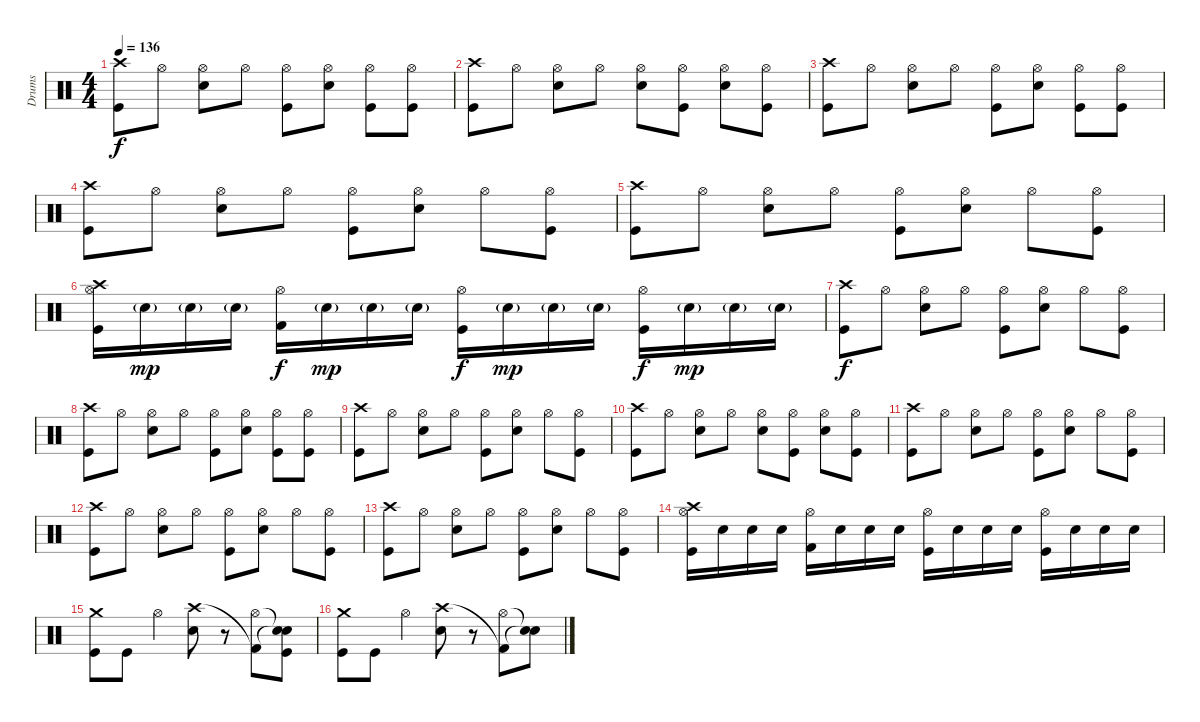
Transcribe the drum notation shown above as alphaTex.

\track ("Drums" "Drums") {instrument percussion}
\staff {score}
\articulation defaults
\ts (4 4)
\tempo 136
\clef neutral
\ks c
("Crash high (hit)" "Kick (hit)").8{dy f} "Hi-Hat (open)".8 ("Hi-Hat (open)" "Electric Snare (hit)").8 "Hi-Hat (open)".8 ("Hi-Hat (open)" "Kick (hit)").8 ("Hi-Hat (open)" "Electric Snare (hit)").8 ("Hi-Hat (open)" "Kick (hit)").8 ("Hi-Hat (open)" "Kick (hit)").8 |
("Crash high (hit)" "Kick (hit)").8 "Hi-Hat (open)".8 ("Hi-Hat (open)" "Electric Snare (hit)").8 "Hi-Hat (open)".8 ("Hi-Hat (open)" "Electric Snare (hit)").8 ("Hi-Hat (open)" "Kick (hit)").8 ("Hi-Hat (open)" "Electric Snare (hit)").8 ("Hi-Hat (open)" "Kick (hit)").8 |
("Crash high (hit)" "Kick (hit)").8 "Hi-Hat (open)".8 ("Hi-Hat (open)" "Electric Snare (hit)").8 "Hi-Hat (open)".8 ("Hi-Hat (open)" "Kick (hit)").8 ("Hi-Hat (open)" "Electric Snare (hit)").8 ("Hi-Hat (open)" "Kick (hit)").8 ("Hi-Hat (open)" "Kick (hit)").8 |
("Crash high (hit)" "Kick (hit)").8 "Hi-Hat (open)".8 ("Hi-Hat (open)" "Electric Snare (hit)").8 "Hi-Hat (open)".8 ("Hi-Hat (open)" "Kick (hit)").8 ("Hi-Hat (open)" "Electric Snare (hit)").8 "Hi-Hat (open)".8 ("Hi-Hat (open)" "Kick (hit)").8 |
("Crash high (hit)" "Kick (hit)").8 "Hi-Hat (open)".8 ("Hi-Hat (open)" "Electric Snare (hit)").8 "Hi-Hat (open)".8 ("Hi-Hat (open)" "Kick (hit)").8 ("Hi-Hat (open)" "Electric Snare (hit)").8 "Hi-Hat (open)".8 ("Hi-Hat (open)" "Kick (hit)").8 |
("Hi-Hat (open)" "Crash high (hit)" "Kick (hit)").16 "Electric Snare (hit)"{g}.16{dy mp} "Electric Snare (hit)"{g}.16 "Electric Snare (hit)"{g}.16 ("Hi-Hat (open)" "Kick (hit) 2").16{dy f} "Electric Snare (hit)"{g}.16{dy mp} "Electric Snare (hit)"{g}.16 "Electric Snare (hit)"{g}.16 ("Hi-Hat (open)" "Kick (hit)").16{dy f} "Electric Snare (hit)"{g}.16{dy mp} "Electric Snare (hit)"{g}.16 "Electric Snare (hit)"{g}.16 ("Hi-Hat (open)" "Kick (hit)").16{dy f} "Electric Snare (hit)"{g}.16{dy mp} "Electric Snare (hit)"{g}.16 "Electric Snare (hit)"{g}.16 |
("Crash high (hit)" "Kick (hit)").8{dy f} "Hi-Hat (open)".8 ("Hi-Hat (open)" "Electric Snare (hit)").8 "Hi-Hat (open)".8 ("Hi-Hat (open)" "Kick (hit)").8 ("Hi-Hat (open)" "Electric Snare (hit)").8 "Hi-Hat (open)".8 ("Hi-Hat (open)" "Kick (hit)").8 |
("Crash high (hit)" "Kick (hit)").8 "Hi-Hat (open)".8 ("Hi-Hat (open)" "Electric Snare (hit)").8 "Hi-Hat (open)".8 ("Hi-Hat (open)" "Kick (hit)").8 ("Hi-Hat (open)" "Electric Snare (hit)").8 ("Hi-Hat (open)" "Kick (hit)").8 ("Hi-Hat (open)" "Kick (hit)").8 |
("Crash high (hit)" "Kick (hit)").8 "Hi-Hat (open)".8 ("Hi-Hat (open)" "Electric Snare (hit)").8 "Hi-Hat (open)".8 ("Hi-Hat (open)" "Kick (hit)").8 ("Hi-Hat (open)" "Electric Snare (hit)").8 "Hi-Hat (open)".8 ("Hi-Hat (open)" "Kick (hit)").8 |
("Crash high (hit)" "Kick (hit)").8 "Hi-Hat (open)".8 ("Hi-Hat (open)" "Electric Snare (hit)").8 "Hi-Hat (open)".8 ("Hi-Hat (open)" "Electric Snare (hit)").8 ("Hi-Hat (open)" "Kick (hit)").8 ("Hi-Hat (open)" "Electric Snare (hit)").8 ("Hi-Hat (open)" "Kick (hit)").8 |
("Crash high (hit)" "Kick (hit)").8 "Hi-Hat (open)".8 ("Hi-Hat (open)" "Electric Snare (hit)").8 "Hi-Hat (open)".8 ("Hi-Hat (open)" "Kick (hit)").8 ("Hi-Hat (open)" "Electric Snare (hit)").8 "Hi-Hat (open)".8 ("Hi-Hat (open)" "Kick (hit)").8 |
("Crash high (hit)" "Kick (hit)").8 "Hi-Hat (open)".8 ("Hi-Hat (open)" "Electric Snare (hit)").8 "Hi-Hat (open)".8 ("Hi-Hat (open)" "Kick (hit)").8 ("Hi-Hat (open)" "Electric Snare (hit)").8 "Hi-Hat (open)".8 ("Hi-Hat (open)" "Kick (hit)").8 |
("Crash high (hit)" "Kick (hit)").8 "Hi-Hat (open)".8 ("Hi-Hat (open)" "Electric Snare (hit)").8 "Hi-Hat (open)".8 ("Hi-Hat (open)" "Kick (hit)").8 ("Hi-Hat (open)" "Electric Snare (hit)").8 "Hi-Hat (open)".8 ("Hi-Hat (open)" "Kick (hit)").8 |
("Hi-Hat (open)" "Crash high (hit)" "Kick (hit)").16 "Electric Snare (hit)".16 "Electric Snare (hit)".16 "Electric Snare (hit)".16 ("Hi-Hat (open)" "Kick (hit) 2").16 "Electric Snare (hit)".16 "Electric Snare (hit)".16 "Electric Snare (hit)".16 ("Hi-Hat (open)" "Kick (hit)").16 "Electric Snare (hit)".16 "Electric Snare (hit)".16 "Electric Snare (hit)".16 ("Hi-Hat (open)" "Kick (hit)").16 "Electric Snare (hit)".16 "Electric Snare (hit)".16 "Electric Snare (hit)".16 |
("Crash medium (hit)" "Kick (hit)").8 "Kick (hit)".8 "Hi-Hat (open)".4 ("Crash high (hit)" "Electric Snare (hit)").8 r.8 ("Kick (hit) 2"{t} "Hi-Hat (open)").8 ("Snare (hit)"{t} "Snare (hit)"{t} "Kick (hit)").8 |
("Crash medium (hit)" "Kick (hit)").8 "Kick (hit)".8 "Hi-Hat (open)".4 ("Crash high (hit)" "Electric Snare (hit)").8 r.8 ("Kick (hit) 2"{t} "Hi-Hat (open)").8 ("Snare (hit)"{t} "Snare (hit)"{t}).8
